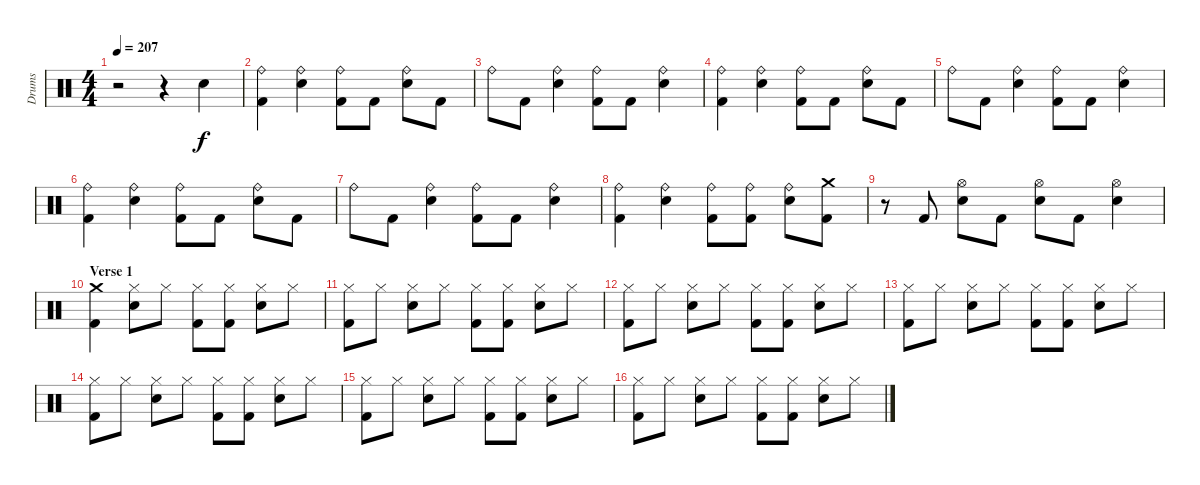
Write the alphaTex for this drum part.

\track ("Drums" "Drums") {instrument percussion}
\staff {score}
\articulation defaults
\ts (4 4)
\tempo 207
\clef neutral
\ks c
r.2{dy f} r.4 "Snare (hit) 2".4 |
("Ride (bell)" "Kick (hit) 2").4 ("Ride (bell)" "Snare (hit) 2").4 ("Ride (bell)" "Kick (hit) 2").8 "Kick (hit) 2".8 ("Ride (bell)" "Snare (hit) 2").8 "Kick (hit) 2".8 |
"Ride (bell)".8 "Kick (hit) 2".8 ("Ride (bell)" "Snare (hit) 2").4 ("Ride (bell)" "Kick (hit) 2").8 "Kick (hit) 2".8 ("Ride (bell)" "Snare (hit) 2").4 |
("Ride (bell)" "Kick (hit) 2").4 ("Ride (bell)" "Snare (hit) 2").4 ("Ride (bell)" "Kick (hit) 2").8 "Kick (hit) 2".8 ("Ride (bell)" "Snare (hit) 2").8 "Kick (hit) 2".8 |
"Ride (bell)".8 "Kick (hit) 2".8 ("Ride (bell)" "Snare (hit) 2").4 ("Ride (bell)" "Kick (hit) 2").8 "Kick (hit) 2".8 ("Ride (bell)" "Snare (hit) 2").4 |
("Ride (bell)" "Kick (hit) 2").4 ("Ride (bell)" "Snare (hit) 2").4 ("Ride (bell)" "Kick (hit) 2").8 "Kick (hit) 2".8 ("Ride (bell)" "Snare (hit) 2").8 "Kick (hit) 2".8 |
"Ride (bell)".8 "Kick (hit) 2".8 ("Ride (bell)" "Snare (hit) 2").4 ("Ride (bell)" "Kick (hit) 2").8 "Kick (hit) 2".8 ("Ride (bell)" "Snare (hit) 2").4 |
("Ride (bell)" "Kick (hit) 2").4 ("Ride (bell)" "Snare (hit) 2").4 ("Ride (bell)" "Kick (hit) 2").8 ("Ride (bell)" "Kick (hit) 2").8 ("Ride (bell)" "Snare (hit) 2").8 ("Crash medium (hit)" "Kick (hit) 2").8 |
r.8 "Kick (hit) 2".8 ("Hi-Hat (open)" "Snare (hit) 2").8 "Kick (hit) 2".8 ("Hi-Hat (open)" "Snare (hit) 2").8 "Kick (hit) 2".8 ("Hi-Hat (open)" "Snare (hit) 2").4 |
\section ("" "Verse 1")
("Crash medium (hit)" "Kick (hit) 2").4 ("Hi-Hat (closed)" "Snare (hit) 2").8 "Hi-Hat (closed)".8 ("Hi-Hat (closed)" "Kick (hit) 2").8 ("Hi-Hat (closed)" "Kick (hit) 2").8 ("Hi-Hat (closed)" "Snare (hit) 2").8 "Hi-Hat (closed)".8 |
("Hi-Hat (closed)" "Kick (hit) 2").8 "Hi-Hat (closed)".8 ("Hi-Hat (closed)" "Snare (hit) 2").8 "Hi-Hat (closed)".8 ("Hi-Hat (closed)" "Kick (hit) 2").8 ("Hi-Hat (closed)" "Kick (hit) 2").8 ("Hi-Hat (closed)" "Snare (hit) 2").8 "Hi-Hat (closed)".8 |
("Hi-Hat (closed)" "Kick (hit) 2").8 "Hi-Hat (closed)".8 ("Hi-Hat (closed)" "Snare (hit) 2").8 "Hi-Hat (closed)".8 ("Hi-Hat (closed)" "Kick (hit) 2").8 ("Hi-Hat (closed)" "Kick (hit) 2").8 ("Hi-Hat (closed)" "Snare (hit) 2").8 "Hi-Hat (closed)".8 |
("Hi-Hat (closed)" "Kick (hit) 2").8 "Hi-Hat (closed)".8 ("Hi-Hat (closed)" "Snare (hit) 2").8 "Hi-Hat (closed)".8 ("Hi-Hat (closed)" "Kick (hit) 2").8 ("Hi-Hat (closed)" "Kick (hit) 2").8 ("Hi-Hat (closed)" "Snare (hit) 2").8 "Hi-Hat (closed)".8 |
("Hi-Hat (closed)" "Kick (hit) 2").8 "Hi-Hat (closed)".8 ("Hi-Hat (closed)" "Snare (hit) 2").8 "Hi-Hat (closed)".8 ("Hi-Hat (closed)" "Kick (hit) 2").8 ("Hi-Hat (closed)" "Kick (hit) 2").8 ("Hi-Hat (closed)" "Snare (hit) 2").8 "Hi-Hat (closed)".8 |
("Hi-Hat (closed)" "Kick (hit) 2").8 "Hi-Hat (closed)".8 ("Hi-Hat (closed)" "Snare (hit) 2").8 "Hi-Hat (closed)".8 ("Hi-Hat (closed)" "Kick (hit) 2").8 ("Hi-Hat (closed)" "Kick (hit) 2").8 ("Hi-Hat (closed)" "Snare (hit) 2").8 "Hi-Hat (closed)".8 |
("Hi-Hat (closed)" "Kick (hit) 2").8 "Hi-Hat (closed)".8 ("Hi-Hat (closed)" "Snare (hit) 2").8 "Hi-Hat (closed)".8 ("Hi-Hat (closed)" "Kick (hit) 2").8 ("Hi-Hat (closed)" "Kick (hit) 2").8 ("Hi-Hat (closed)" "Snare (hit) 2").8 "Hi-Hat (closed)".8
